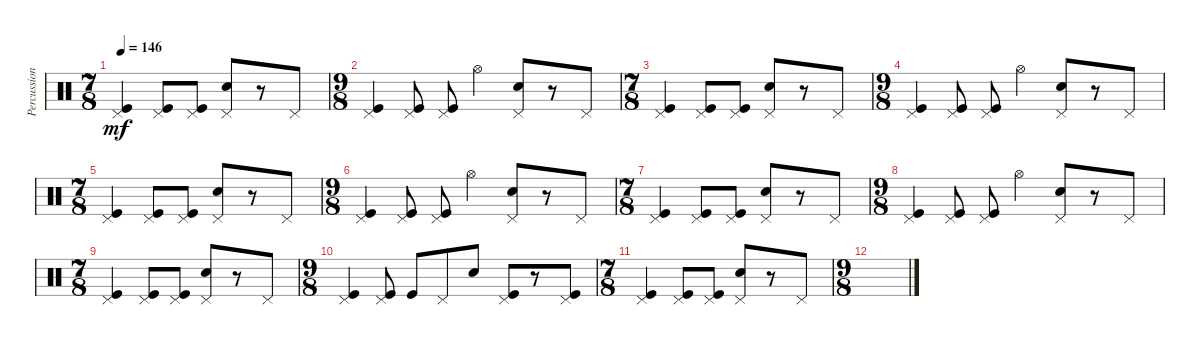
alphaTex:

\track ("Percussion" "Percussion") {instrument percussion}
\staff {score}
\articulation defaults
\ts (7 8)
\tempo 146
\clef neutral
\ks c
("Pedal Hi-Hat (hit)" "Kick (hit)").4{dy mf} ("Pedal Hi-Hat (hit)" "Kick (hit)").8 ("Pedal Hi-Hat (hit)" "Kick (hit)").8 ("Pedal Hi-Hat (hit)" "Snare (hit) 2").8 r.8 "Pedal Hi-Hat (hit)".8 |
\ts (9 8)
("Pedal Hi-Hat (hit)" "Kick (hit)").4 ("Pedal Hi-Hat (hit)" "Kick (hit)").8 ("Pedal Hi-Hat (hit)" "Kick (hit)").8 "Hi-Hat (open)".4 ("Pedal Hi-Hat (hit)" "Snare (hit) 2").8 r.8 "Pedal Hi-Hat (hit)".8 |
\ts (7 8)
("Pedal Hi-Hat (hit)" "Kick (hit)").4 ("Pedal Hi-Hat (hit)" "Kick (hit)").8 ("Pedal Hi-Hat (hit)" "Kick (hit)").8 ("Pedal Hi-Hat (hit)" "Snare (hit) 2").8 r.8 "Pedal Hi-Hat (hit)".8 |
\ts (9 8)
("Pedal Hi-Hat (hit)" "Kick (hit)").4 ("Pedal Hi-Hat (hit)" "Kick (hit)").8 ("Pedal Hi-Hat (hit)" "Kick (hit)").8 "Hi-Hat (open)".4 ("Pedal Hi-Hat (hit)" "Snare (hit) 2").8 r.8 "Pedal Hi-Hat (hit)".8 |
\ts (7 8)
("Pedal Hi-Hat (hit)" "Kick (hit)").4 ("Pedal Hi-Hat (hit)" "Kick (hit)").8 ("Pedal Hi-Hat (hit)" "Kick (hit)").8 ("Pedal Hi-Hat (hit)" "Snare (hit) 2").8 r.8 "Pedal Hi-Hat (hit)".8 |
\ts (9 8)
("Pedal Hi-Hat (hit)" "Kick (hit)").4 ("Pedal Hi-Hat (hit)" "Kick (hit)").8 ("Pedal Hi-Hat (hit)" "Kick (hit)").8 "Hi-Hat (open)".4 ("Pedal Hi-Hat (hit)" "Snare (hit) 2").8 r.8 "Pedal Hi-Hat (hit)".8 |
\ts (7 8)
("Pedal Hi-Hat (hit)" "Kick (hit)").4 ("Pedal Hi-Hat (hit)" "Kick (hit)").8 ("Pedal Hi-Hat (hit)" "Kick (hit)").8 ("Pedal Hi-Hat (hit)" "Snare (hit) 2").8 r.8 "Pedal Hi-Hat (hit)".8 |
\ts (9 8)
("Pedal Hi-Hat (hit)" "Kick (hit)").4 ("Pedal Hi-Hat (hit)" "Kick (hit)").8 ("Pedal Hi-Hat (hit)" "Kick (hit)").8 "Hi-Hat (open)".4 ("Pedal Hi-Hat (hit)" "Snare (hit) 2").8 r.8 "Pedal Hi-Hat (hit)".8 |
\ts (7 8)
("Pedal Hi-Hat (hit)" "Kick (hit)").4 ("Pedal Hi-Hat (hit)" "Kick (hit)").8 ("Pedal Hi-Hat (hit)" "Kick (hit)").8 ("Pedal Hi-Hat (hit)" "Snare (hit) 2").8 r.8 "Pedal Hi-Hat (hit)".8 |
\ts (9 8)
("Pedal Hi-Hat (hit)" "Kick (hit)").4 ("Pedal Hi-Hat (hit)" "Kick (hit)").8 "Kick (hit)".8 "Pedal Hi-Hat (hit)".8 "Snare (hit) 2".8 ("Pedal Hi-Hat (hit)" "Kick (hit)").8 r.8 ("Pedal Hi-Hat (hit)" "Kick (hit)").8 |
\ts (7 8)
("Pedal Hi-Hat (hit)" "Kick (hit)").4 ("Pedal Hi-Hat (hit)" "Kick (hit)").8 ("Pedal Hi-Hat (hit)" "Kick (hit)").8 ("Pedal Hi-Hat (hit)" "Snare (hit) 2").8 r.8 "Pedal Hi-Hat (hit)".8 |
\ts (9 8)
